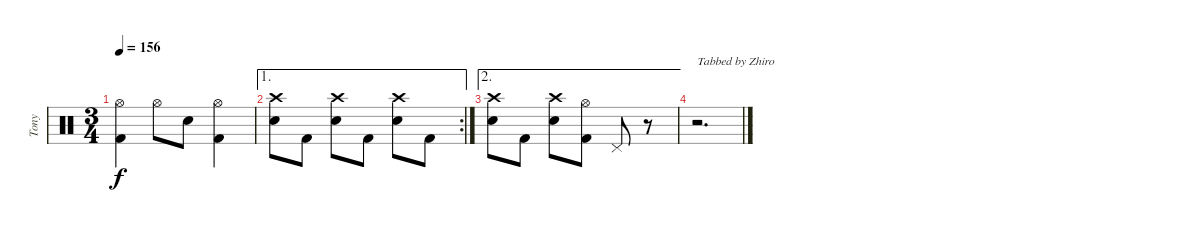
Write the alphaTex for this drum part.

\track ("Tony" "Tony") {instrument percussion}
\staff {score}
\articulation defaults
\ts (3 4)
\tempo 156
\clef neutral
\ks c
("Hi-Hat (open)" "Kick (hit) 2").4{dy f} "Hi-Hat (open)".8 "Electric Snare (hit)".8 ("Hi-Hat (open)" "Kick (hit) 2").4 |
\ae 1
\rc 2
("Crash high (hit)" "Electric Snare (hit)").8 "Kick (hit) 2".8 ("Crash high (hit)" "Electric Snare (hit)").8 "Kick (hit) 2".8 ("Crash high (hit)" "Electric Snare (hit)").8 "Kick (hit) 2".8 |
\ae 2
("Crash high (hit)" "Electric Snare (hit)").8 "Kick (hit) 2".8 ("Crash high (hit)" "Electric Snare (hit)").8 ("Hi-Hat (open)" "Kick (hit) 2").8 "Pedal Hi-Hat (hit)".8 r.8 |
r.2{d txt "Tabbed by Zhiro"}
